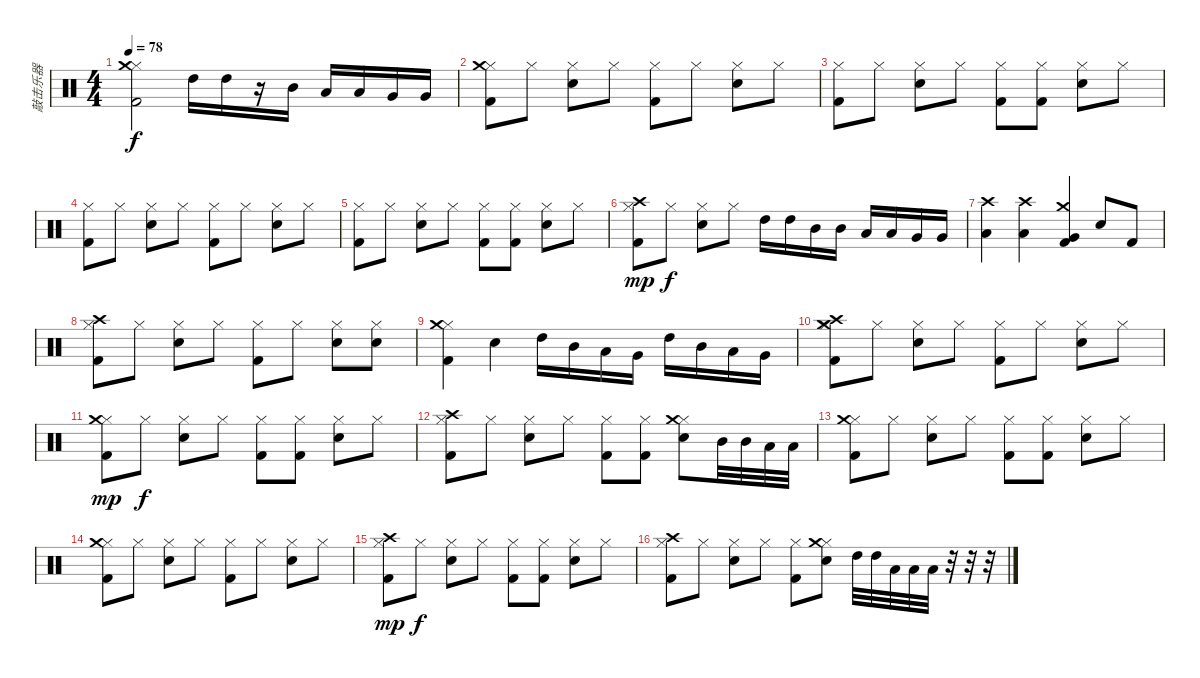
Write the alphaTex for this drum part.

\track ("敲击乐器" "敲击乐器") {instrument percussion}
\staff {score}
\articulation defaults
\ts (4 4)
\tempo 78
\clef neutral
\ks c
("Hi-Hat (closed)" "Kick (hit) 2" "Crash medium (hit)").2{dy f} "High Tom (hit)".16 "High Tom (hit)".16 r.16 "Mid Tom (hit)".16 "Low Tom (hit)".16 "Low Tom (hit)".16 "Very Low Tom (hit)".16 "Very Low Tom (hit)".16 |
("Hi-Hat (closed)" "Kick (hit) 2" "Crash medium (hit)").8 "Hi-Hat (closed)".8 ("Hi-Hat (closed)" "Snare (hit) 2").8 "Hi-Hat (closed)".8 ("Hi-Hat (closed)" "Kick (hit) 2").8 "Hi-Hat (closed)".8 ("Hi-Hat (closed)" "Snare (hit) 2").8 "Hi-Hat (closed)".8 |
("Hi-Hat (closed)" "Kick (hit) 2").8 "Hi-Hat (closed)".8 ("Hi-Hat (closed)" "Snare (hit) 2").8 "Hi-Hat (closed)".8 ("Hi-Hat (closed)" "Kick (hit) 2").8 ("Hi-Hat (closed)" "Kick (hit) 2").8 ("Hi-Hat (closed)" "Snare (hit) 2").8 "Hi-Hat (closed)".8 |
("Hi-Hat (closed)" "Kick (hit) 2").8 "Hi-Hat (closed)".8 ("Hi-Hat (closed)" "Snare (hit) 2").8 "Hi-Hat (closed)".8 ("Hi-Hat (closed)" "Kick (hit) 2").8 "Hi-Hat (closed)".8 ("Hi-Hat (closed)" "Snare (hit) 2").8 "Hi-Hat (closed)".8 |
("Hi-Hat (closed)" "Kick (hit) 2").8 "Hi-Hat (closed)".8 ("Hi-Hat (closed)" "Snare (hit) 2").8 "Hi-Hat (closed)".8 ("Hi-Hat (closed)" "Kick (hit) 2").8 ("Hi-Hat (closed)" "Kick (hit) 2").8 ("Hi-Hat (closed)" "Snare (hit) 2").8 "Hi-Hat (closed)".8 |
("Hi-Hat (closed)" "Kick (hit) 2" "Crash high (hit)").8{dy mp} "Hi-Hat (closed)".8{dy f} ("Hi-Hat (closed)" "Snare (hit) 2").8 "Hi-Hat (closed)".8 "High Tom (hit)".16 "High Tom (hit)".16 "Mid Tom (hit)".16 "Mid Tom (hit)".16 "Low Tom (hit)".16 "Low Tom (hit)".16 "Very Low Tom (hit)".16 "Very Low Tom (hit)".16 |
("Low Tom (hit)" "Crash high (hit)").4 ("Low Tom (hit)" "Crash high (hit)").4 ("Very Low Tom (hit)" "Kick (hit) 2" "Crash medium (hit)").4 "Snare (hit) 2".8 "Kick (hit) 2".8 |
("Hi-Hat (closed)" "Kick (hit) 2" "Crash high (hit)").8 "Hi-Hat (closed)".8 ("Hi-Hat (closed)" "Snare (hit) 2").8 "Hi-Hat (closed)".8 ("Hi-Hat (closed)" "Kick (hit) 2").8 "Hi-Hat (closed)".8 ("Hi-Hat (closed)" "Snare (hit) 2").8 ("Hi-Hat (closed)" "Snare (hit) 2").8 |
("Hi-Hat (closed)" "Kick (hit) 2" "Crash medium (hit)").4 "Snare (hit) 2".4 "High Tom (hit)".16 "Mid Tom (hit)".16 "Low Tom (hit)".16 "Very Low Tom (hit)".16 "High Tom (hit)".16 "Mid Tom (hit)".16 "Low Tom (hit)".16 "Very Low Tom (hit)".16 |
("Hi-Hat (closed)" "Kick (hit) 2" "Crash medium (hit)" "Crash high (hit)").8 "Hi-Hat (closed)".8 ("Hi-Hat (closed)" "Snare (hit) 2").8 "Hi-Hat (closed)".8 ("Hi-Hat (closed)" "Kick (hit) 2").8 "Hi-Hat (closed)".8 ("Hi-Hat (closed)" "Snare (hit) 2").8 "Hi-Hat (closed)".8 |
("Hi-Hat (closed)" "Kick (hit) 2" "Crash medium (hit)").8{dy mp} "Hi-Hat (closed)".8{dy f} ("Hi-Hat (closed)" "Snare (hit) 2").8 "Hi-Hat (closed)".8 ("Hi-Hat (closed)" "Kick (hit) 2").8 ("Hi-Hat (closed)" "Kick (hit) 2").8 ("Hi-Hat (closed)" "Snare (hit) 2").8 "Hi-Hat (closed)".8 |
("Hi-Hat (closed)" "Kick (hit) 2" "Crash high (hit)").8 "Hi-Hat (closed)".8 ("Hi-Hat (closed)" "Snare (hit) 2").8 "Hi-Hat (closed)".8 ("Hi-Hat (closed)" "Kick (hit) 2").8 ("Hi-Hat (closed)" "Kick (hit) 2").8 ("Hi-Hat (closed)" "Snare (hit) 2" "Crash medium (hit)").8 "Mid Tom (hit)".32 "Mid Tom (hit)".32 "Low Tom (hit)".32 "Low Tom (hit)".32 |
("Hi-Hat (closed)" "Kick (hit) 2" "Crash medium (hit)").8 "Hi-Hat (closed)".8 ("Hi-Hat (closed)" "Snare (hit) 2").8 "Hi-Hat (closed)".8 ("Hi-Hat (closed)" "Kick (hit) 2").8 ("Hi-Hat (closed)" "Kick (hit) 2").8 ("Hi-Hat (closed)" "Snare (hit) 2").8 "Hi-Hat (closed)".8 |
("Hi-Hat (closed)" "Kick (hit) 2" "Crash medium (hit)").8 "Hi-Hat (closed)".8 ("Hi-Hat (closed)" "Snare (hit) 2").8 "Hi-Hat (closed)".8 ("Hi-Hat (closed)" "Kick (hit) 2").8 "Hi-Hat (closed)".8 ("Hi-Hat (closed)" "Snare (hit) 2").8 "Hi-Hat (closed)".8 |
("Hi-Hat (closed)" "Kick (hit) 2" "Crash high (hit)").8{dy mp} "Hi-Hat (closed)".8{dy f} ("Hi-Hat (closed)" "Snare (hit) 2").8 "Hi-Hat (closed)".8 ("Hi-Hat (closed)" "Kick (hit) 2").8 ("Hi-Hat (closed)" "Kick (hit) 2").8 ("Hi-Hat (closed)" "Snare (hit) 2").8 "Hi-Hat (closed)".8 |
("Hi-Hat (closed)" "Kick (hit) 2" "Crash high (hit)").8 "Hi-Hat (closed)".8 ("Hi-Hat (closed)" "Snare (hit) 2").8 "Hi-Hat (closed)".8 ("Hi-Hat (closed)" "Kick (hit) 2").8 ("Hi-Hat (closed)" "Snare (hit) 2" "Crash medium (hit)").8 "High Tom (hit)".32 "High Tom (hit)".32 "Low Tom (hit)".32 "Low Tom (hit)".32 "Low Tom (hit)".32 r.32 r.32 r.32
